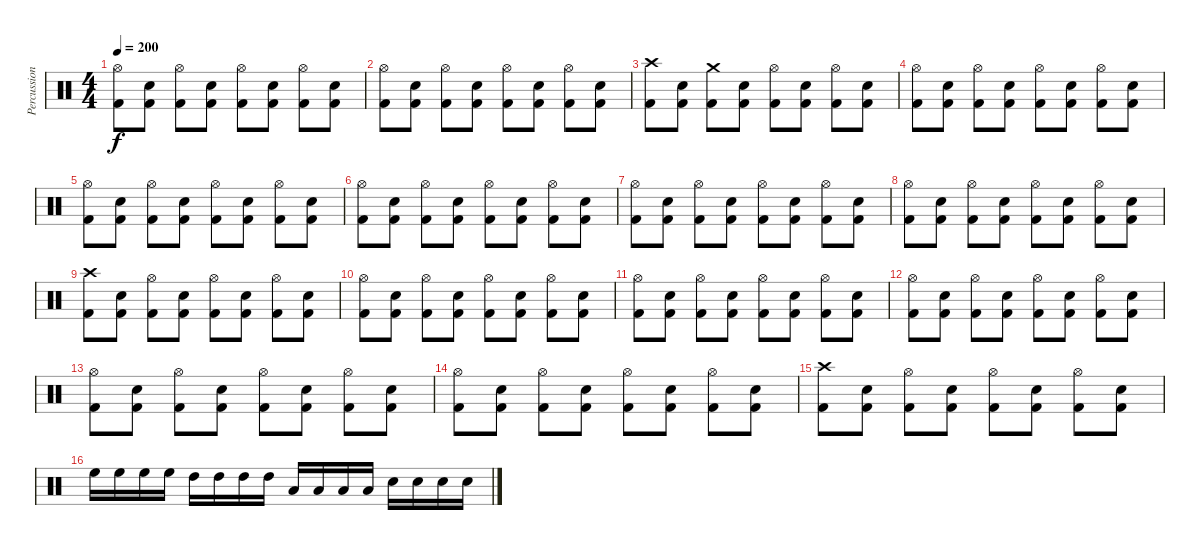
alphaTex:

\track ("Percussions" "Percussion") {instrument percussion}
\staff {score}
\articulation defaults
\ts (4 4)
\tempo 200
\clef neutral
\ks c
("Kick (hit) 2" "Hi-Hat (open)").8{dy f} ("Kick (hit) 2" "Snare (hit) 2").8 ("Kick (hit) 2" "Hi-Hat (open)").8 ("Kick (hit) 2" "Snare (hit) 2").8 ("Kick (hit) 2" "Hi-Hat (open)").8 ("Kick (hit) 2" "Snare (hit) 2").8 ("Kick (hit) 2" "Hi-Hat (open)").8 ("Kick (hit) 2" "Snare (hit) 2").8 |
("Kick (hit) 2" "Hi-Hat (open)").8 ("Kick (hit) 2" "Snare (hit) 2").8 ("Kick (hit) 2" "Hi-Hat (open)").8 ("Kick (hit) 2" "Snare (hit) 2").8 ("Kick (hit) 2" "Hi-Hat (open)").8 ("Kick (hit) 2" "Snare (hit) 2").8 ("Kick (hit) 2" "Hi-Hat (open)").8 ("Kick (hit) 2" "Snare (hit) 2").8 |
("Kick (hit) 2" "Crash high (hit)").8 ("Kick (hit) 2" "Snare (hit) 2").8 ("Kick (hit) 2" "Crash medium (hit)").8 ("Kick (hit) 2" "Snare (hit) 2").8 ("Kick (hit) 2" "Hi-Hat (open)").8 ("Kick (hit) 2" "Snare (hit) 2").8 ("Kick (hit) 2" "Hi-Hat (open)").8 ("Kick (hit) 2" "Snare (hit) 2").8 |
("Kick (hit) 2" "Hi-Hat (open)").8 ("Kick (hit) 2" "Snare (hit) 2").8 ("Kick (hit) 2" "Hi-Hat (open)").8 ("Kick (hit) 2" "Snare (hit) 2").8 ("Kick (hit) 2" "Hi-Hat (open)").8 ("Kick (hit) 2" "Snare (hit) 2").8 ("Kick (hit) 2" "Hi-Hat (open)").8 ("Kick (hit) 2" "Snare (hit) 2").8 |
("Kick (hit) 2" "Hi-Hat (open)").8 ("Kick (hit) 2" "Snare (hit) 2").8 ("Kick (hit) 2" "Hi-Hat (open)").8 ("Kick (hit) 2" "Snare (hit) 2").8 ("Kick (hit) 2" "Hi-Hat (open)").8 ("Kick (hit) 2" "Snare (hit) 2").8 ("Kick (hit) 2" "Hi-Hat (open)").8 ("Kick (hit) 2" "Snare (hit) 2").8 |
("Kick (hit) 2" "Hi-Hat (open)").8 ("Kick (hit) 2" "Snare (hit) 2").8 ("Kick (hit) 2" "Hi-Hat (open)").8 ("Kick (hit) 2" "Snare (hit) 2").8 ("Kick (hit) 2" "Hi-Hat (open)").8 ("Kick (hit) 2" "Snare (hit) 2").8 ("Kick (hit) 2" "Hi-Hat (open)").8 ("Kick (hit) 2" "Snare (hit) 2").8 |
("Kick (hit) 2" "Hi-Hat (open)").8 ("Kick (hit) 2" "Snare (hit) 2").8 ("Kick (hit) 2" "Hi-Hat (open)").8 ("Kick (hit) 2" "Snare (hit) 2").8 ("Kick (hit) 2" "Hi-Hat (open)").8 ("Kick (hit) 2" "Snare (hit) 2").8 ("Kick (hit) 2" "Hi-Hat (open)").8 ("Kick (hit) 2" "Snare (hit) 2").8 |
("Kick (hit) 2" "Hi-Hat (open)").8 ("Kick (hit) 2" "Snare (hit) 2").8 ("Kick (hit) 2" "Hi-Hat (open)").8 ("Kick (hit) 2" "Snare (hit) 2").8 ("Kick (hit) 2" "Hi-Hat (open)").8 ("Kick (hit) 2" "Snare (hit) 2").8 ("Kick (hit) 2" "Hi-Hat (open)").8 ("Kick (hit) 2" "Snare (hit) 2").8 |
("Kick (hit) 2" "Crash high (hit)").8 ("Kick (hit) 2" "Snare (hit) 2").8 ("Kick (hit) 2" "Hi-Hat (open)").8 ("Kick (hit) 2" "Snare (hit) 2").8 ("Kick (hit) 2" "Hi-Hat (open)").8 ("Kick (hit) 2" "Snare (hit) 2").8 ("Kick (hit) 2" "Hi-Hat (open)").8 ("Kick (hit) 2" "Snare (hit) 2").8 |
("Kick (hit) 2" "Hi-Hat (open)").8 ("Kick (hit) 2" "Snare (hit) 2").8 ("Kick (hit) 2" "Hi-Hat (open)").8 ("Kick (hit) 2" "Snare (hit) 2").8 ("Kick (hit) 2" "Hi-Hat (open)").8 ("Kick (hit) 2" "Snare (hit) 2").8 ("Kick (hit) 2" "Hi-Hat (open)").8 ("Kick (hit) 2" "Snare (hit) 2").8 |
("Kick (hit) 2" "Hi-Hat (open)").8 ("Kick (hit) 2" "Snare (hit) 2").8 ("Kick (hit) 2" "Hi-Hat (open)").8 ("Kick (hit) 2" "Snare (hit) 2").8 ("Kick (hit) 2" "Hi-Hat (open)").8 ("Kick (hit) 2" "Snare (hit) 2").8 ("Kick (hit) 2" "Hi-Hat (open)").8 ("Kick (hit) 2" "Snare (hit) 2").8 |
("Kick (hit) 2" "Hi-Hat (open)").8 ("Kick (hit) 2" "Snare (hit) 2").8 ("Kick (hit) 2" "Hi-Hat (open)").8 ("Kick (hit) 2" "Snare (hit) 2").8 ("Kick (hit) 2" "Hi-Hat (open)").8 ("Kick (hit) 2" "Snare (hit) 2").8 ("Kick (hit) 2" "Hi-Hat (open)").8 ("Kick (hit) 2" "Snare (hit) 2").8 |
("Kick (hit) 2" "Hi-Hat (open)").8 ("Kick (hit) 2" "Snare (hit) 2").8 ("Kick (hit) 2" "Hi-Hat (open)").8 ("Kick (hit) 2" "Snare (hit) 2").8 ("Kick (hit) 2" "Hi-Hat (open)").8 ("Kick (hit) 2" "Snare (hit) 2").8 ("Kick (hit) 2" "Hi-Hat (open)").8 ("Kick (hit) 2" "Snare (hit) 2").8 |
("Kick (hit) 2" "Hi-Hat (open)").8 ("Kick (hit) 2" "Snare (hit) 2").8 ("Kick (hit) 2" "Hi-Hat (open)").8 ("Kick (hit) 2" "Snare (hit) 2").8 ("Kick (hit) 2" "Hi-Hat (open)").8 ("Kick (hit) 2" "Snare (hit) 2").8 ("Kick (hit) 2" "Hi-Hat (open)").8 ("Kick (hit) 2" "Snare (hit) 2").8 |
("Kick (hit) 2" "Crash high (hit)").8 ("Kick (hit) 2" "Snare (hit) 2").8 ("Kick (hit) 2" "Hi-Hat (open)").8 ("Kick (hit) 2" "Snare (hit) 2").8 ("Kick (hit) 2" "Hi-Hat (open)").8 ("Kick (hit) 2" "Snare (hit) 2").8 ("Kick (hit) 2" "Hi-Hat (open)").8 ("Kick (hit) 2" "Snare (hit) 2").8 |
"High Floor Tom (hit)".16 "High Floor Tom (hit)".16 "High Floor Tom (hit)".16 "High Floor Tom (hit)".16 "High Tom (hit)".16 "High Tom (hit)".16 "High Tom (hit)".16 "High Tom (hit)".16 "Low Tom (hit)".16 "Low Tom (hit)".16 "Low Tom (hit)".16 "Low Tom (hit)".16 "Snare (hit) 2".16 "Snare (hit) 2".16 "Snare (hit) 2".16 "Snare (hit) 2".16
